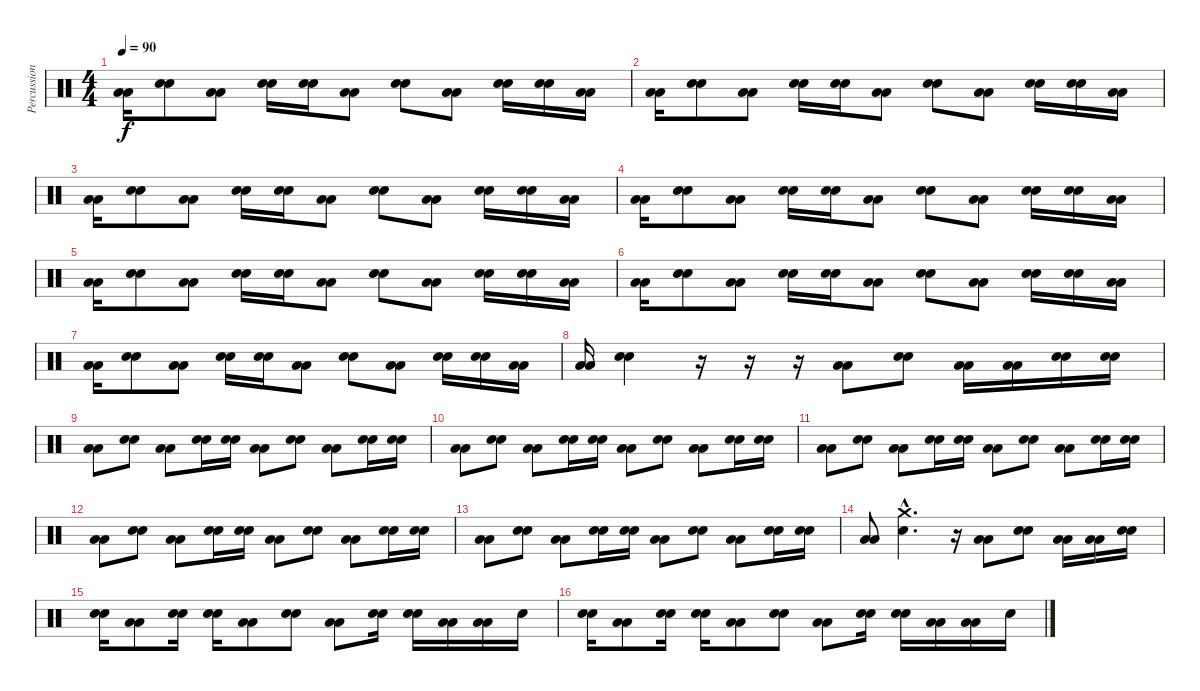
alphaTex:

\track ("Percussions" "Percussion") {instrument percussion}
\staff {score}
\articulation defaults
\ts (4 4)
\tempo 90
\clef neutral
\ks c
("Low Floor Tom (hit)" "Low Floor Tom (hit)").16{dy f} ("Snare (hit) 2" "Electric Snare (hit)").8 ("Low Floor Tom (hit)" "Low Floor Tom (hit)").8 ("Snare (hit) 2" "Electric Snare (hit)").16 ("Snare (hit) 2" "Electric Snare (hit)").16 ("Low Floor Tom (hit)" "Low Floor Tom (hit)").8 ("Snare (hit) 2" "Electric Snare (hit)").8 ("Low Floor Tom (hit)" "Low Floor Tom (hit)").8 ("Snare (hit) 2" "Electric Snare (hit)").16 ("Snare (hit) 2" "Electric Snare (hit)").16 ("Low Floor Tom (hit)" "Low Floor Tom (hit)").16 |
("Low Floor Tom (hit)" "Low Floor Tom (hit)").16 ("Snare (hit) 2" "Electric Snare (hit)").8 ("Low Floor Tom (hit)" "Low Floor Tom (hit)").8 ("Snare (hit) 2" "Electric Snare (hit)").16 ("Snare (hit) 2" "Electric Snare (hit)").16 ("Low Floor Tom (hit)" "Low Floor Tom (hit)").8 ("Snare (hit) 2" "Electric Snare (hit)").8 ("Low Floor Tom (hit)" "Low Floor Tom (hit)").8 ("Snare (hit) 2" "Electric Snare (hit)").16 ("Snare (hit) 2" "Electric Snare (hit)").16 ("Low Floor Tom (hit)" "Low Floor Tom (hit)").16 |
("Low Floor Tom (hit)" "Low Floor Tom (hit)").16 ("Snare (hit) 2" "Electric Snare (hit)").8 ("Low Floor Tom (hit)" "Low Floor Tom (hit)").8 ("Snare (hit) 2" "Electric Snare (hit)").16 ("Snare (hit) 2" "Electric Snare (hit)").16 ("Low Floor Tom (hit)" "Low Floor Tom (hit)").8 ("Snare (hit) 2" "Electric Snare (hit)").8 ("Low Floor Tom (hit)" "Low Floor Tom (hit)").8 ("Snare (hit) 2" "Electric Snare (hit)").16 ("Snare (hit) 2" "Electric Snare (hit)").16 ("Low Floor Tom (hit)" "Low Floor Tom (hit)").16 |
("Low Floor Tom (hit)" "Low Floor Tom (hit)").16 ("Snare (hit) 2" "Electric Snare (hit)").8 ("Low Floor Tom (hit)" "Low Floor Tom (hit)").8 ("Snare (hit) 2" "Electric Snare (hit)").16 ("Snare (hit) 2" "Electric Snare (hit)").16 ("Low Floor Tom (hit)" "Low Floor Tom (hit)").8 ("Snare (hit) 2" "Electric Snare (hit)").8 ("Low Floor Tom (hit)" "Low Floor Tom (hit)").8 ("Snare (hit) 2" "Electric Snare (hit)").16 ("Snare (hit) 2" "Electric Snare (hit)").16 ("Low Floor Tom (hit)" "Low Floor Tom (hit)").16 |
("Low Floor Tom (hit)" "Low Floor Tom (hit)").16 ("Snare (hit) 2" "Electric Snare (hit)").8 ("Low Floor Tom (hit)" "Low Floor Tom (hit)").8 ("Snare (hit) 2" "Electric Snare (hit)").16 ("Snare (hit) 2" "Electric Snare (hit)").16 ("Low Floor Tom (hit)" "Low Floor Tom (hit)").8 ("Snare (hit) 2" "Electric Snare (hit)").8 ("Low Floor Tom (hit)" "Low Floor Tom (hit)").8 ("Snare (hit) 2" "Electric Snare (hit)").16 ("Snare (hit) 2" "Electric Snare (hit)").16 ("Low Floor Tom (hit)" "Low Floor Tom (hit)").16 |
("Low Floor Tom (hit)" "Low Floor Tom (hit)").16 ("Snare (hit) 2" "Electric Snare (hit)").8 ("Low Floor Tom (hit)" "Low Floor Tom (hit)").8 ("Snare (hit) 2" "Electric Snare (hit)").16 ("Snare (hit) 2" "Electric Snare (hit)").16 ("Low Floor Tom (hit)" "Low Floor Tom (hit)").8 ("Snare (hit) 2" "Electric Snare (hit)").8 ("Low Floor Tom (hit)" "Low Floor Tom (hit)").8 ("Snare (hit) 2" "Electric Snare (hit)").16 ("Snare (hit) 2" "Electric Snare (hit)").16 ("Low Floor Tom (hit)" "Low Floor Tom (hit)").16 |
("Low Floor Tom (hit)" "Low Floor Tom (hit)").16 ("Snare (hit) 2" "Electric Snare (hit)").8 ("Low Floor Tom (hit)" "Low Floor Tom (hit)").8 ("Snare (hit) 2" "Electric Snare (hit)").16 ("Snare (hit) 2" "Electric Snare (hit)").16 ("Low Floor Tom (hit)" "Low Floor Tom (hit)").8 ("Snare (hit) 2" "Electric Snare (hit)").8 ("Low Floor Tom (hit)" "Low Floor Tom (hit)").8 ("Snare (hit) 2" "Electric Snare (hit)").16 ("Snare (hit) 2" "Electric Snare (hit)").16 ("Low Floor Tom (hit)" "Low Floor Tom (hit)").16 |
("Low Floor Tom (hit)" "Low Floor Tom (hit)").16 ("Snare (hit) 2" "Electric Snare (hit)").4 r.16 r.16 r.16 ("Low Floor Tom (hit)" "Low Floor Tom (hit)").8 ("Snare (hit) 2" "Electric Snare (hit)").8 ("Low Floor Tom (hit)" "Low Floor Tom (hit)").16 ("Low Floor Tom (hit)" "Low Floor Tom (hit)").16 ("Snare (hit) 2" "Electric Snare (hit)").16 ("Snare (hit) 2" "Electric Snare (hit)").16 |
("Low Floor Tom (hit)" "Low Floor Tom (hit)").8 ("Snare (hit) 2" "Electric Snare (hit)").8 ("Low Floor Tom (hit)" "Low Floor Tom (hit)").8 ("Snare (hit) 2" "Electric Snare (hit)").16 ("Snare (hit) 2" "Electric Snare (hit)").16 ("Low Floor Tom (hit)" "Low Floor Tom (hit)").8 ("Snare (hit) 2" "Electric Snare (hit)").8 ("Low Floor Tom (hit)" "Low Floor Tom (hit)").8 ("Snare (hit) 2" "Electric Snare (hit)").16 ("Snare (hit) 2" "Electric Snare (hit)").16 |
("Low Floor Tom (hit)" "Low Floor Tom (hit)").8 ("Snare (hit) 2" "Electric Snare (hit)").8 ("Low Floor Tom (hit)" "Low Floor Tom (hit)").8 ("Snare (hit) 2" "Electric Snare (hit)").16 ("Snare (hit) 2" "Electric Snare (hit)").16 ("Low Floor Tom (hit)" "Low Floor Tom (hit)").8 ("Snare (hit) 2" "Electric Snare (hit)").8 ("Low Floor Tom (hit)" "Low Floor Tom (hit)").8 ("Snare (hit) 2" "Electric Snare (hit)").16 ("Snare (hit) 2" "Electric Snare (hit)").16 |
("Low Floor Tom (hit)" "Low Floor Tom (hit)").8 ("Snare (hit) 2" "Electric Snare (hit)").8 ("Low Floor Tom (hit)" "Low Floor Tom (hit)").8 ("Snare (hit) 2" "Electric Snare (hit)").16 ("Snare (hit) 2" "Electric Snare (hit)").16 ("Low Floor Tom (hit)" "Low Floor Tom (hit)").8 ("Snare (hit) 2" "Electric Snare (hit)").8 ("Low Floor Tom (hit)" "Low Floor Tom (hit)").8 ("Snare (hit) 2" "Electric Snare (hit)").16 ("Snare (hit) 2" "Electric Snare (hit)").16 |
("Low Floor Tom (hit)" "Low Floor Tom (hit)").8 ("Snare (hit) 2" "Electric Snare (hit)").8 ("Low Floor Tom (hit)" "Low Floor Tom (hit)").8 ("Snare (hit) 2" "Electric Snare (hit)").16 ("Snare (hit) 2" "Electric Snare (hit)").16 ("Low Floor Tom (hit)" "Low Floor Tom (hit)").8 ("Snare (hit) 2" "Electric Snare (hit)").8 ("Low Floor Tom (hit)" "Low Floor Tom (hit)").8 ("Snare (hit) 2" "Electric Snare (hit)").16 ("Snare (hit) 2" "Electric Snare (hit)").16 |
("Low Floor Tom (hit)" "Low Floor Tom (hit)").8 ("Snare (hit) 2" "Electric Snare (hit)").8 ("Low Floor Tom (hit)" "Low Floor Tom (hit)").8 ("Snare (hit) 2" "Electric Snare (hit)").16 ("Snare (hit) 2" "Electric Snare (hit)").16 ("Low Floor Tom (hit)" "Low Floor Tom (hit)").8 ("Snare (hit) 2" "Electric Snare (hit)").8 ("Low Floor Tom (hit)" "Low Floor Tom (hit)").8 ("Snare (hit) 2" "Electric Snare (hit)").16 ("Snare (hit) 2" "Electric Snare (hit)").16 |
("Low Floor Tom (hit)" "Low Floor Tom (hit)").8 ("Snare (hit) 2"{hac} "Crash medium (hit)"{hac}).4{d} r.16 ("Low Floor Tom (hit)" "Low Floor Tom (hit)").8 ("Snare (hit) 2" "Electric Snare (hit)").8 ("Low Floor Tom (hit)" "Low Floor Tom (hit)").16 ("Low Floor Tom (hit)" "Low Floor Tom (hit)").16 ("Snare (hit) 2" "Electric Snare (hit)").16 |
("Snare (hit) 2" "Electric Snare (hit)").16 ("Low Floor Tom (hit)" "Low Floor Tom (hit)").8 ("Snare (hit) 2" "Electric Snare (hit)").16 ("Snare (hit) 2" "Electric Snare (hit)").16 ("Low Floor Tom (hit)" "Low Floor Tom (hit)").8 ("Snare (hit) 2" "Electric Snare (hit)").8 ("Low Floor Tom (hit)" "Low Floor Tom (hit)").8 ("Snare (hit) 2" "Electric Snare (hit)").16 ("Snare (hit) 2" "Electric Snare (hit)").16 ("Low Floor Tom (hit)" "Low Floor Tom (hit)").16 ("Low Floor Tom (hit)" "Low Floor Tom (hit)").16 "Snare (hit) 2".16 |
("Snare (hit) 2" "Electric Snare (hit)").16 ("Low Floor Tom (hit)" "Low Floor Tom (hit)").8 ("Snare (hit) 2" "Electric Snare (hit)").16 ("Snare (hit) 2" "Electric Snare (hit)").16 ("Low Floor Tom (hit)" "Low Floor Tom (hit)").8 ("Snare (hit) 2" "Electric Snare (hit)").8 ("Low Floor Tom (hit)" "Low Floor Tom (hit)").8 ("Snare (hit) 2" "Electric Snare (hit)").16 ("Snare (hit) 2" "Electric Snare (hit)").16 ("Low Floor Tom (hit)" "Low Floor Tom (hit)").16 ("Low Floor Tom (hit)" "Low Floor Tom (hit)").16 "Snare (hit) 2".16
